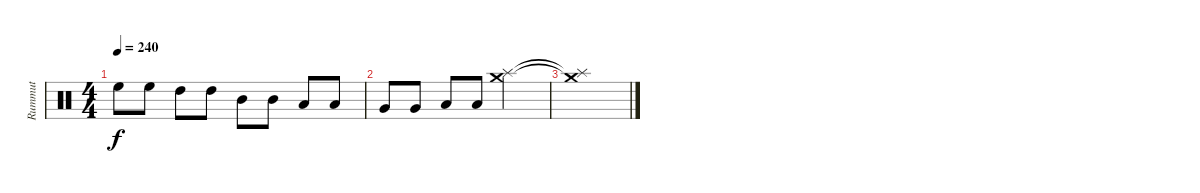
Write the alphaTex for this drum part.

\track ("Rummut" "Rummut") {instrument percussion}
\staff
\articulation defaults
\ts (4 4)
\tempo 240
\clef neutral
\ks c "High Floor Tom (hit)".8{dy f} "High Floor Tom (hit)".8 "High Tom (hit)".8 "High Tom (hit)".8 "Mid Tom (hit)".8 "Mid Tom (hit)".8 "Low Tom (hit)".8 "Low Tom (hit)".8
|
"Very Low Tom (hit)".8 "Very Low Tom (hit)".8 "Low Floor Tom (hit)".8 "Low Floor Tom (hit)".8 ("Crash medium (hit)" "Splash (hit)").2 |
("Crash medium (hit)"{t} "Splash (hit)"{t}).1
